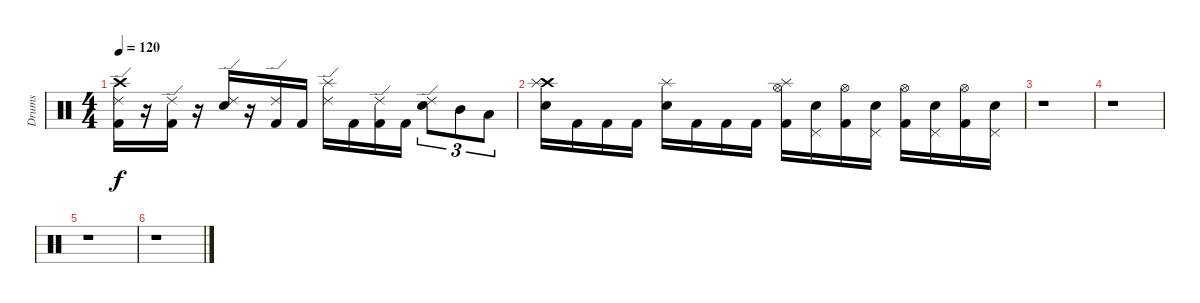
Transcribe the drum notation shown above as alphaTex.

\track ("Drums" "Drums") {instrument percussion}
\staff {score}
\articulation defaults
\ts (4 4)
\tempo 120
\clef neutral
\ks c
("Crash high (hit)" "Ride (edge) 2" "Kick (hit) 2").16{dy f balance 0} r.16 ("Ride (edge) 2" "Kick (hit) 2").16 r.16 ("Ride (edge) 2" "Electric Snare (hit)").16 r.16 ("Ride (edge) 2" "Kick (hit) 2").16 "Kick (hit) 2".16 ("Splash (hit)" "Ride (edge) 2").16{balance 16} "Kick (hit) 2".16 ("Ride (edge) 2" "Kick (hit) 2").16 "Kick (hit) 2".16 ("Ride (edge) 2" "Electric Snare (hit)").8{tu (3 2)} "Mid Tom (hit)".8{tu (3 2)} "Low Tom (hit)".8{tu (3 2)} |
("Crash high (hit)" "Splash (hit)" "Electric Snare (hit)").16{balance 0} "Kick (hit) 2".16 "Kick (hit) 2".16 "Kick (hit) 2".16 ("Splash (hit)" "Electric Snare (hit)").16 "Kick (hit) 2".16 "Kick (hit) 2".16 "Kick (hit) 2".16 ("Splash (hit)" "Hi-Hat (open)" "Kick (hit) 2").16{balance 16} ("Pedal Hi-Hat (hit)" "Electric Snare (hit)").16 ("Hi-Hat (open)" "Kick (hit) 2").16 ("Pedal Hi-Hat (hit)" "Electric Snare (hit)").16 ("Hi-Hat (open)" "Kick (hit) 2").16 ("Pedal Hi-Hat (hit)" "Electric Snare (hit)").16 ("Hi-Hat (open)" "Kick (hit) 2").16 ("Pedal Hi-Hat (hit)" "Electric Snare (hit)").16 |
r.1 |
r.1 |
r.1 |
r.1
